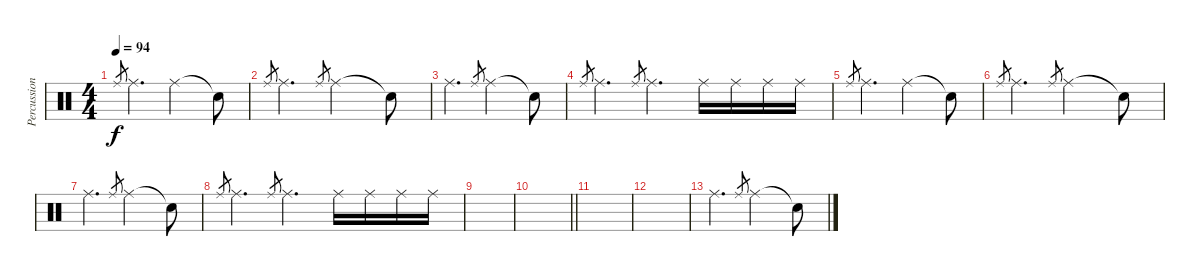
\track ("Percussion" "Percussion") {instrument percussion}
\staff {score}
\articulation defaults
\ts (4 4)
\section ("" "")
\tempo 94
\clef neutral
\ks c "Ride (middle)".8{gr dy f} "Ride (middle)".4{d} "Ride (middle)".2 "Snare (hit)"{t}.8
|
"Ride (middle)".8{gr} "Ride (middle)".4{d} "Ride (middle)".8{gr} "Ride (middle)".2 "Snare (hit)"{t}.8 |
"Ride (middle)".4{d} "Ride (middle)".8{gr} "Ride (middle)".2 "Snare (hit)"{t}.8 |
"Ride (middle)".8{gr} "Ride (middle)".4{d} "Ride (middle)".8{gr} "Ride (middle)".4{d} "Ride (middle)".16 "Ride (middle)".16 "Ride (middle)".16 "Ride (middle)".16 |
"Ride (middle)".8{gr} "Ride (middle)".4{d} "Ride (middle)".2 "Snare (hit)"{t}.8 |
"Ride (middle)".8{gr} "Ride (middle)".4{d} "Ride (middle)".8{gr} "Ride (middle)".2 "Snare (hit)"{t}.8 |
"Ride (middle)".4{d} "Ride (middle)".8{gr} "Ride (middle)".2 "Snare (hit)"{t}.8 |
"Ride (middle)".8{gr} "Ride (middle)".4{d} "Ride (middle)".8{gr} "Ride (middle)".4{d} "Ride (middle)".16 "Ride (middle)".16 "Ride (middle)".16 "Ride (middle)".16 |
|
\barLineRight lightlight
|
\section ("" "")
|
|
"Ride (middle)".4{d} "Ride (middle)".8{gr} "Ride (middle)".2 "Snare (hit)"{t}.8
